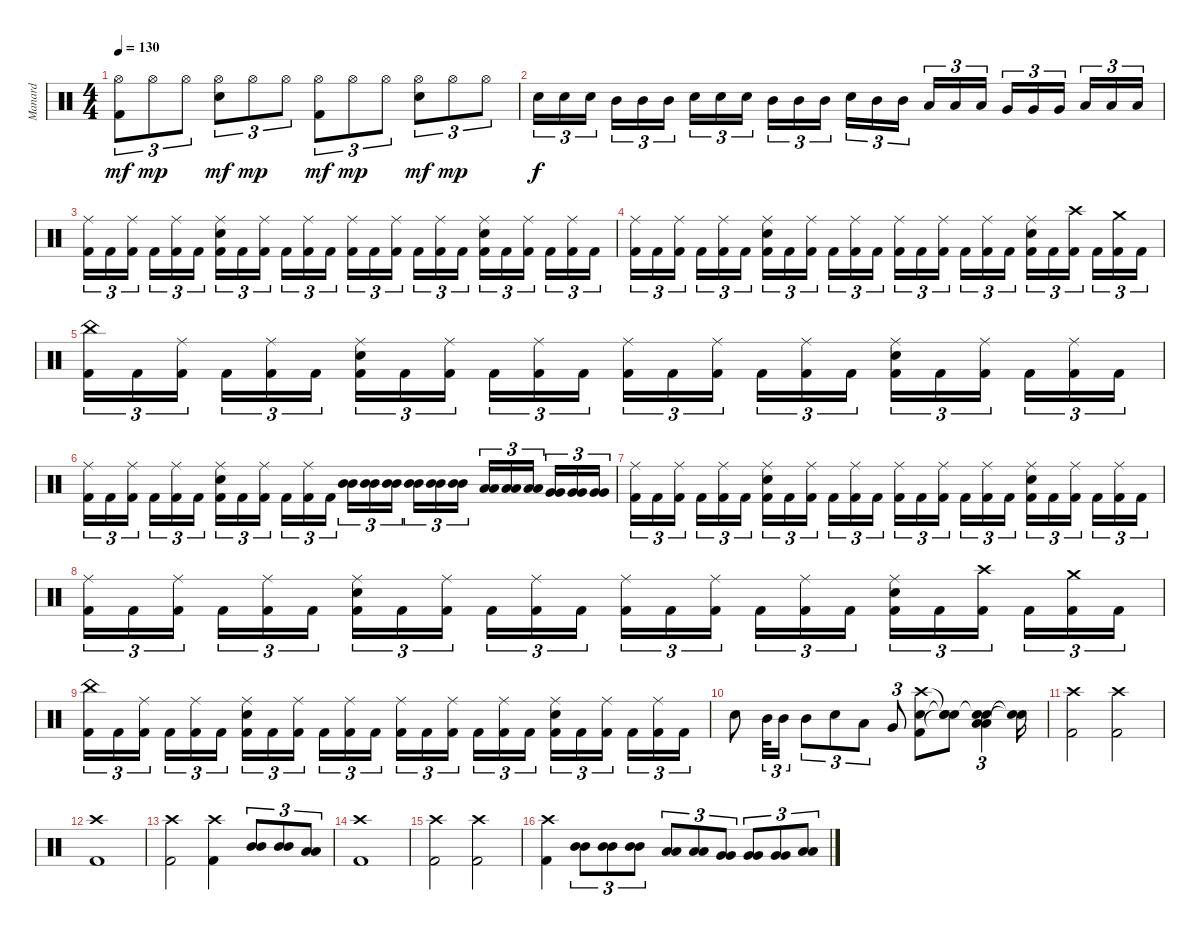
\track ("Manard" "Manard") {instrument percussion}
\staff {score}
\articulation defaults
\ts (4 4)
\tempo 130
\clef neutral
\ks c
("Hi-Hat (open)" "Kick (hit) 2").8{tu (3 2) dy mf} "Hi-Hat (open)".8{tu (3 2) dy mp} "Hi-Hat (open)".8{tu (3 2)} ("Hi-Hat (open)" "Electric Snare (hit)").8{tu (3 2) dy mf} "Hi-Hat (open)".8{tu (3 2) dy mp} "Hi-Hat (open)".8{tu (3 2)} ("Hi-Hat (open)" "Kick (hit) 2").8{tu (3 2) dy mf} "Hi-Hat (open)".8{tu (3 2) dy mp} "Hi-Hat (open)".8{tu (3 2)} ("Hi-Hat (open)" "Electric Snare (hit)").8{tu (3 2) dy mf} "Hi-Hat (open)".8{tu (3 2) dy mp} "Hi-Hat (open)".8{tu (3 2)} |
"Electric Snare (hit)".16{tu (3 2) dy f} "Electric Snare (hit)".16{tu (3 2)} "Electric Snare (hit)".16{tu (3 2)} "Mid Tom (hit)".16{tu (3 2)} "Mid Tom (hit)".16{tu (3 2)} "Mid Tom (hit)".16{tu (3 2)} "Electric Snare (hit)".16{tu (3 2)} "Electric Snare (hit)".16{tu (3 2)} "Electric Snare (hit)".16{tu (3 2)} "Mid Tom (hit)".16{tu (3 2)} "Mid Tom (hit)".16{tu (3 2)} "Mid Tom (hit)".16{tu (3 2)} "Electric Snare (hit)".16{tu (3 2)} "Mid Tom (hit)".16{tu (3 2)} "Mid Tom (hit)".16{tu (3 2)} "Low Tom (hit)".16{tu (3 2)} "Low Tom (hit)".16{tu (3 2)} "Low Tom (hit)".16{tu (3 2)} "Very Low Tom (hit)".16{tu (3 2)} "Very Low Tom (hit)".16{tu (3 2)} "Very Low Tom (hit)".16{tu (3 2)} "Low Floor Tom (hit)".16{tu (3 2)} "Low Floor Tom (hit)".16{tu (3 2)} "Low Floor Tom (hit)".16{tu (3 2)} |
("Ride (middle)" "Kick (hit) 2").16{tu (3 2)} "Kick (hit) 2".16{tu (3 2)} ("Ride (middle)" "Kick (hit) 2").16{tu (3 2)} "Kick (hit) 2".16{tu (3 2)} ("Ride (middle)" "Kick (hit) 2").16{tu (3 2)} "Kick (hit) 2".16{tu (3 2)} ("Ride (middle)" "Electric Snare (hit)" "Kick (hit) 2").16{tu (3 2)} "Kick (hit) 2".16{tu (3 2)} ("Ride (middle)" "Kick (hit) 2").16{tu (3 2)} "Kick (hit) 2".16{tu (3 2)} ("Ride (middle)" "Kick (hit) 2").16{tu (3 2)} "Kick (hit) 2".16{tu (3 2)} ("Ride (middle)" "Kick (hit) 2").16{tu (3 2)} "Kick (hit) 2".16{tu (3 2)} ("Ride (middle)" "Kick (hit) 2").16{tu (3 2)} "Kick (hit) 2".16{tu (3 2)} ("Ride (middle)" "Kick (hit) 2").16{tu (3 2)} "Kick (hit) 2".16{tu (3 2)} ("Ride (middle)" "Electric Snare (hit)" "Kick (hit) 2").16{tu (3 2)} "Kick (hit) 2".16{tu (3 2)} ("Ride (middle)" "Kick (hit) 2").16{tu (3 2)} "Kick (hit) 2".16{tu (3 2)} ("Ride (middle)" "Kick (hit) 2").16{tu (3 2)} "Kick (hit) 2".16{tu (3 2)} |
("Ride (middle)" "Kick (hit) 2").16{tu (3 2)} "Kick (hit) 2".16{tu (3 2)} ("Ride (middle)" "Kick (hit) 2").16{tu (3 2)} "Kick (hit) 2".16{tu (3 2)} ("Ride (middle)" "Kick (hit) 2").16{tu (3 2)} "Kick (hit) 2".16{tu (3 2)} ("Ride (middle)" "Electric Snare (hit)" "Kick (hit) 2").16{tu (3 2)} "Kick (hit) 2".16{tu (3 2)} ("Ride (middle)" "Kick (hit) 2").16{tu (3 2)} "Kick (hit) 2".16{tu (3 2)} ("Ride (middle)" "Kick (hit) 2").16{tu (3 2)} "Kick (hit) 2".16{tu (3 2)} ("Ride (middle)" "Kick (hit) 2").16{tu (3 2)} "Kick (hit) 2".16{tu (3 2)} ("Ride (middle)" "Kick (hit) 2").16{tu (3 2)} "Kick (hit) 2".16{tu (3 2)} ("Ride (middle)" "Kick (hit) 2").16{tu (3 2)} "Kick (hit) 2".16{tu (3 2)} ("Ride (middle)" "Electric Snare (hit)" "Kick (hit) 2").16{tu (3 2)} "Kick (hit) 2".16{tu (3 2)} ("Crash high (hit)" "Kick (hit) 2").16{tu (3 2)} "Kick (hit) 2".16{tu (3 2)} ("Crash medium (hit)" "Kick (hit) 2").16{tu (3 2)} "Kick (hit) 2".16{tu (3 2)} |
("China (hit)" "Kick (hit) 2").16{tu (3 2)} "Kick (hit) 2".16{tu (3 2)} ("Ride (middle)" "Kick (hit) 2").16{tu (3 2)} "Kick (hit) 2".16{tu (3 2)} ("Ride (middle)" "Kick (hit) 2").16{tu (3 2)} "Kick (hit) 2".16{tu (3 2)} ("Ride (middle)" "Electric Snare (hit)" "Kick (hit) 2").16{tu (3 2)} "Kick (hit) 2".16{tu (3 2)} ("Ride (middle)" "Kick (hit) 2").16{tu (3 2)} "Kick (hit) 2".16{tu (3 2)} ("Ride (middle)" "Kick (hit) 2").16{tu (3 2)} "Kick (hit) 2".16{tu (3 2)} ("Ride (middle)" "Kick (hit) 2").16{tu (3 2)} "Kick (hit) 2".16{tu (3 2)} ("Ride (middle)" "Kick (hit) 2").16{tu (3 2)} "Kick (hit) 2".16{tu (3 2)} ("Ride (middle)" "Kick (hit) 2").16{tu (3 2)} "Kick (hit) 2".16{tu (3 2)} ("Ride (middle)" "Electric Snare (hit)" "Kick (hit) 2").16{tu (3 2)} "Kick (hit) 2".16{tu (3 2)} ("Ride (middle)" "Kick (hit) 2").16{tu (3 2)} "Kick (hit) 2".16{tu (3 2)} ("Ride (middle)" "Kick (hit) 2").16{tu (3 2)} "Kick (hit) 2".16{tu (3 2)} |
("Ride (middle)" "Kick (hit) 2").16{tu (3 2)} "Kick (hit) 2".16{tu (3 2)} ("Ride (middle)" "Kick (hit) 2").16{tu (3 2)} "Kick (hit) 2".16{tu (3 2)} ("Ride (middle)" "Kick (hit) 2").16{tu (3 2)} "Kick (hit) 2".16{tu (3 2)} ("Ride (middle)" "Electric Snare (hit)" "Kick (hit) 2").16{tu (3 2)} "Kick (hit) 2".16{tu (3 2)} ("Ride (middle)" "Kick (hit) 2").16{tu (3 2)} "Kick (hit) 2".16{tu (3 2)} ("Ride (middle)" "Kick (hit) 2").16{tu (3 2)} "Kick (hit) 2".16{tu (3 2)} ("Mid Tom (hit)" "Mid Tom (hit)").16{tu (3 2)} ("Mid Tom (hit)" "Mid Tom (hit)").16{tu (3 2)} ("Mid Tom (hit)" "Mid Tom (hit)").16{tu (3 2)} ("Mid Tom (hit)" "Mid Tom (hit)").16{tu (3 2)} ("Mid Tom (hit)" "Mid Tom (hit)").16{tu (3 2)} ("Mid Tom (hit)" "Mid Tom (hit)").16{tu (3 2)} ("Low Tom (hit)" "Low Tom (hit)").16{tu (3 2)} ("Low Tom (hit)" "Low Tom (hit)").16{tu (3 2)} ("Low Tom (hit)" "Low Tom (hit)").16{tu (3 2)} ("Very Low Tom (hit)" "Very Low Tom (hit)").16{tu (3 2)} ("Very Low Tom (hit)" "Very Low Tom (hit)").16{tu (3 2)} ("Very Low Tom (hit)" "Very Low Tom (hit)").16{tu (3 2)} |
("Ride (middle)" "Kick (hit) 2").16{tu (3 2)} "Kick (hit) 2".16{tu (3 2)} ("Ride (middle)" "Kick (hit) 2").16{tu (3 2)} "Kick (hit) 2".16{tu (3 2)} ("Ride (middle)" "Kick (hit) 2").16{tu (3 2)} "Kick (hit) 2".16{tu (3 2)} ("Ride (middle)" "Electric Snare (hit)" "Kick (hit) 2").16{tu (3 2)} "Kick (hit) 2".16{tu (3 2)} ("Ride (middle)" "Kick (hit) 2").16{tu (3 2)} "Kick (hit) 2".16{tu (3 2)} ("Ride (middle)" "Kick (hit) 2").16{tu (3 2)} "Kick (hit) 2".16{tu (3 2)} ("Ride (middle)" "Kick (hit) 2").16{tu (3 2)} "Kick (hit) 2".16{tu (3 2)} ("Ride (middle)" "Kick (hit) 2").16{tu (3 2)} "Kick (hit) 2".16{tu (3 2)} ("Ride (middle)" "Kick (hit) 2").16{tu (3 2)} "Kick (hit) 2".16{tu (3 2)} ("Ride (middle)" "Electric Snare (hit)" "Kick (hit) 2").16{tu (3 2)} "Kick (hit) 2".16{tu (3 2)} ("Ride (middle)" "Kick (hit) 2").16{tu (3 2)} "Kick (hit) 2".16{tu (3 2)} ("Ride (middle)" "Kick (hit) 2").16{tu (3 2)} "Kick (hit) 2".16{tu (3 2)} |
("Ride (middle)" "Kick (hit) 2").16{tu (3 2)} "Kick (hit) 2".16{tu (3 2)} ("Ride (middle)" "Kick (hit) 2").16{tu (3 2)} "Kick (hit) 2".16{tu (3 2)} ("Ride (middle)" "Kick (hit) 2").16{tu (3 2)} "Kick (hit) 2".16{tu (3 2)} ("Ride (middle)" "Electric Snare (hit)" "Kick (hit) 2").16{tu (3 2)} "Kick (hit) 2".16{tu (3 2)} ("Ride (middle)" "Kick (hit) 2").16{tu (3 2)} "Kick (hit) 2".16{tu (3 2)} ("Ride (middle)" "Kick (hit) 2").16{tu (3 2)} "Kick (hit) 2".16{tu (3 2)} ("Ride (middle)" "Kick (hit) 2").16{tu (3 2)} "Kick (hit) 2".16{tu (3 2)} ("Ride (middle)" "Kick (hit) 2").16{tu (3 2)} "Kick (hit) 2".16{tu (3 2)} ("Ride (middle)" "Kick (hit) 2").16{tu (3 2)} "Kick (hit) 2".16{tu (3 2)} ("Ride (middle)" "Electric Snare (hit)" "Kick (hit) 2").16{tu (3 2)} "Kick (hit) 2".16{tu (3 2)} ("Crash high (hit)" "Kick (hit) 2").16{tu (3 2)} "Kick (hit) 2".16{tu (3 2)} ("Crash medium (hit)" "Kick (hit) 2").16{tu (3 2)} "Kick (hit) 2".16{tu (3 2)} |
("China (hit)" "Kick (hit) 2").16{tu (3 2)} "Kick (hit) 2".16{tu (3 2)} ("Ride (middle)" "Kick (hit) 2").16{tu (3 2)} "Kick (hit) 2".16{tu (3 2)} ("Ride (middle)" "Kick (hit) 2").16{tu (3 2)} "Kick (hit) 2".16{tu (3 2)} ("Ride (middle)" "Electric Snare (hit)" "Kick (hit) 2").16{tu (3 2)} "Kick (hit) 2".16{tu (3 2)} ("Ride (middle)" "Kick (hit) 2").16{tu (3 2)} "Kick (hit) 2".16{tu (3 2)} ("Ride (middle)" "Kick (hit) 2").16{tu (3 2)} "Kick (hit) 2".16{tu (3 2)} ("Ride (middle)" "Kick (hit) 2").16{tu (3 2)} "Kick (hit) 2".16{tu (3 2)} ("Ride (middle)" "Kick (hit) 2").16{tu (3 2)} "Kick (hit) 2".16{tu (3 2)} ("Ride (middle)" "Kick (hit) 2").16{tu (3 2)} "Kick (hit) 2".16{tu (3 2)} ("Ride (middle)" "Electric Snare (hit)" "Kick (hit) 2").16{tu (3 2)} "Kick (hit) 2".16{tu (3 2)} ("Ride (middle)" "Kick (hit) 2").16{tu (3 2)} "Kick (hit) 2".16{tu (3 2)} ("Ride (middle)" "Kick (hit) 2").16{tu (3 2)} "Kick (hit) 2".16{tu (3 2)} |
"Electric Snare (hit)".8 "Mid Tom (hit)".32{tu (3 2)} "Mid Tom (hit)".16{tu (3 2)} "Mid Tom (hit)".8{tu (3 2)} "Electric Snare (hit)".8{tu (3 2)} "Low Tom (hit)".8{tu (3 2)} "Very Low Tom (hit)".8{tu (3 2)} ("Crash high (hit)" "Electric Snare (hit)" "Kick (hit) 2").8 ("Snare (hit)"{t} "Snare (hit)"{t} "Snare (hit)"{t}).8 ("Snare (hit)"{t} "Low Floor Tom (hit)" "Low Floor Tom (hit)" "Snare (hit)").4{tu (3 2)} ("Snare (hit)"{t} "Snare (hit)"{t}).16 |
("Crash high (hit)" "Kick (hit) 2").2 ("Crash high (hit)" "Kick (hit) 2").2 |
("Crash high (hit)" "Kick (hit) 2").1 |
("Crash high (hit)" "Kick (hit) 2").2 ("Crash high (hit)" "Kick (hit) 2").4 ("Mid Tom (hit)" "Mid Tom (hit)").8{tu (3 2)} ("Mid Tom (hit)" "Mid Tom (hit)").8{tu (3 2)} ("Low Tom (hit)" "Low Tom (hit)").8{tu (3 2)} |
("Crash high (hit)" "Kick (hit) 2").1 |
("Crash high (hit)" "Kick (hit) 2").2 ("Crash high (hit)" "Kick (hit) 2").2 |
("Crash high (hit)" "Kick (hit) 2").4 ("Mid Tom (hit)" "Mid Tom (hit)").8{tu (3 2)} ("Mid Tom (hit)" "Mid Tom (hit)").8{tu (3 2)} ("Mid Tom (hit)" "Mid Tom (hit)").8{tu (3 2)} ("Low Tom (hit)" "Low Tom (hit)").8{tu (3 2)} ("Low Tom (hit)" "Low Tom (hit)").8{tu (3 2)} ("Very Low Tom (hit)" "Very Low Tom (hit)").8{tu (3 2)} ("Very Low Tom (hit)" "Very Low Tom (hit)").8{tu (3 2)} ("Very Low Tom (hit)" "Very Low Tom (hit)").8{tu (3 2)} ("Low Floor Tom (hit)" "Low Floor Tom (hit)").8{tu (3 2)}
